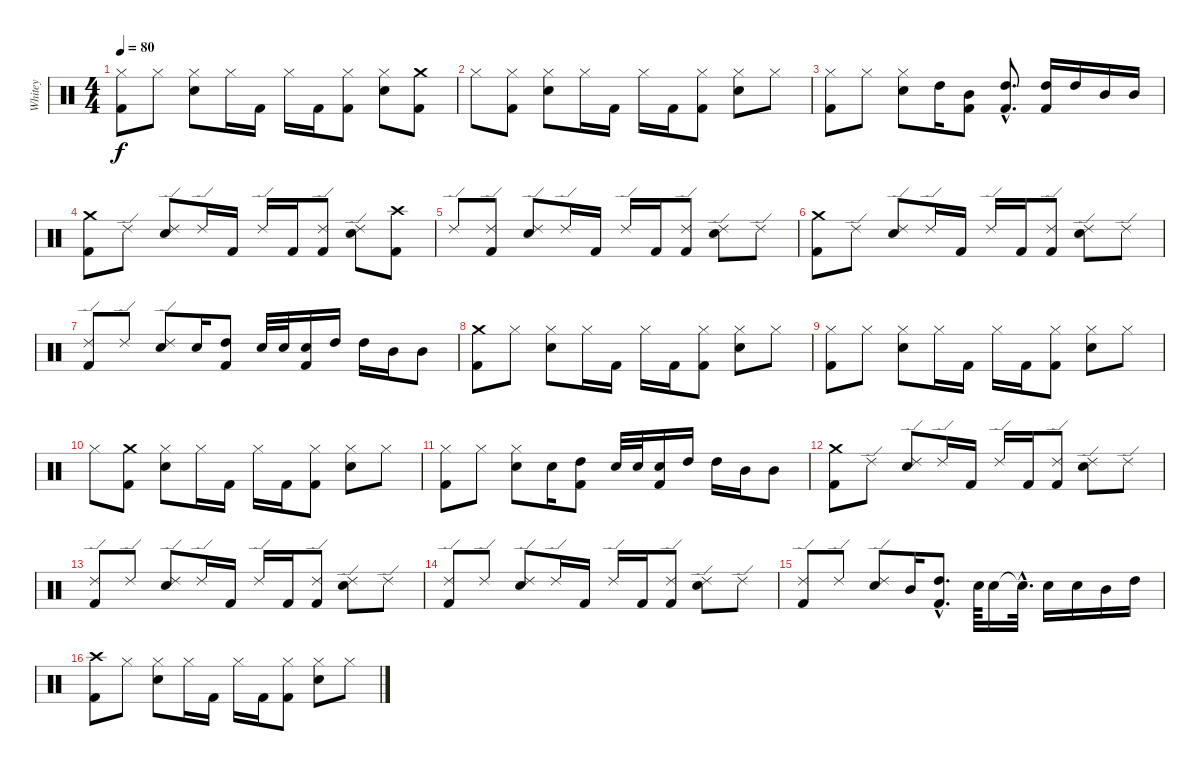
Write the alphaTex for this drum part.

\track ("Whitey" "Whitey") {instrument percussion}
\staff {score}
\articulation defaults
\ts (4 4)
\tempo 80
\clef neutral
\ks c
("Hi-Hat (closed)" "Kick (hit) 2").8{dy f} "Hi-Hat (closed)".8 ("Hi-Hat (closed)" "Snare (hit) 2").8 "Hi-Hat (closed)".16 "Kick (hit) 2".16 "Hi-Hat (closed)".16 "Kick (hit) 2".16 ("Hi-Hat (closed)" "Kick (hit) 2").8 ("Hi-Hat (closed)" "Snare (hit) 2").8 ("Crash medium (hit)" "Kick (hit) 2").8 |
"Hi-Hat (closed)".8 ("Hi-Hat (closed)" "Kick (hit) 2").8 ("Hi-Hat (closed)" "Snare (hit) 2").8 "Hi-Hat (closed)".16 "Kick (hit) 2".16 "Hi-Hat (closed)".16 "Kick (hit) 2".16 ("Hi-Hat (closed)" "Kick (hit) 2").8 ("Hi-Hat (closed)" "Snare (hit) 2").8 "Hi-Hat (closed)".8 |
("Hi-Hat (closed)" "Kick (hit) 2").8 "Hi-Hat (closed)".8 ("Hi-Hat (closed)" "Snare (hit) 2").8 "High Tom (hit)".16 ("Mid Tom (hit)" "Kick (hit) 2").8 ("High Tom (hit)"{hac} "Kick (hit) 2"{hac}).8{d} ("High Tom (hit)" "Kick (hit) 2").16 "High Tom (hit)".16 "Mid Tom (hit)".16 "Mid Tom (hit)".16 |
("Crash medium (hit)" "Kick (hit) 2").8 "Ride (edge) 2".8 ("Ride (edge) 2" "Snare (hit) 2").8 "Ride (edge) 2".16 "Kick (hit) 2".16 "Ride (edge) 2".16 "Kick (hit) 2".16 ("Ride (edge) 2" "Kick (hit) 2").8 ("Ride (edge) 2" "Snare (hit) 2").8 ("Crash high (hit)" "Kick (hit) 2").8 |
"Ride (edge) 2".8 ("Ride (edge) 2" "Kick (hit) 2").8 ("Ride (edge) 2" "Snare (hit) 2").8 "Ride (edge) 2".16 "Kick (hit) 2".16 "Ride (edge) 2".16 "Kick (hit) 2".16 ("Ride (edge) 2" "Kick (hit) 2").8 ("Ride (edge) 2" "Snare (hit) 2").8 "Ride (edge) 2".8 |
("Crash medium (hit)" "Kick (hit) 2").8 "Ride (edge) 2".8 ("Ride (edge) 2" "Snare (hit) 2").8 "Ride (edge) 2".16 "Kick (hit) 2".16 "Ride (edge) 2".16 "Kick (hit) 2".16 ("Ride (edge) 2" "Kick (hit) 2").8 ("Ride (edge) 2" "Snare (hit) 2").8 "Ride (edge) 2".8 |
("Ride (edge) 2" "Kick (hit) 2").8 "Ride (edge) 2".8 ("Ride (edge) 2" "Snare (hit) 2").8 "Snare (hit) 2".16 ("High Tom (hit)" "Kick (hit) 2").8 "Snare (hit) 2".32 "Snare (hit) 2".32 ("Snare (hit) 2" "Kick (hit) 2").16 "High Tom (hit)".16 "High Tom (hit)".16 "Mid Tom (hit)".16 "Mid Tom (hit)".8 |
("Crash medium (hit)" "Kick (hit) 2").8 "Hi-Hat (closed)".8 ("Hi-Hat (closed)" "Snare (hit) 2").8 "Hi-Hat (closed)".16 "Kick (hit) 2".16 "Hi-Hat (closed)".16 "Kick (hit) 2".16 ("Hi-Hat (closed)" "Kick (hit) 2").8 ("Hi-Hat (closed)" "Snare (hit) 2").8 "Hi-Hat (closed)".8 |
("Hi-Hat (closed)" "Kick (hit) 2").8 "Hi-Hat (closed)".8 ("Hi-Hat (closed)" "Snare (hit) 2").8 "Hi-Hat (closed)".16 "Kick (hit) 2".16 "Hi-Hat (closed)".16 "Kick (hit) 2".16 ("Hi-Hat (closed)" "Kick (hit) 2").8 ("Hi-Hat (closed)" "Snare (hit) 2").8 "Hi-Hat (closed)".8 |
"Hi-Hat (closed)".8 ("Crash medium (hit)" "Kick (hit) 2").8 ("Hi-Hat (closed)" "Snare (hit) 2").8 "Hi-Hat (closed)".16 "Kick (hit) 2".16 "Hi-Hat (closed)".16 "Kick (hit) 2".16 ("Hi-Hat (closed)" "Kick (hit) 2").8 ("Hi-Hat (closed)" "Snare (hit) 2").8 "Hi-Hat (closed)".8 |
("Hi-Hat (closed)" "Kick (hit) 2").8 "Hi-Hat (closed)".8 ("Hi-Hat (closed)" "Snare (hit) 2").8 "Snare (hit) 2".16 ("High Tom (hit)" "Kick (hit) 2").8 "Snare (hit) 2".32 "Snare (hit) 2".32 ("Snare (hit) 2" "Kick (hit) 2").16 "High Tom (hit)".16 "High Tom (hit)".16 "Mid Tom (hit)".16 "Mid Tom (hit)".8 |
("Crash medium (hit)" "Kick (hit) 2").8 "Ride (edge) 2".8 ("Ride (edge) 2" "Snare (hit) 2").8 "Ride (edge) 2".16 "Kick (hit) 2".16 "Ride (edge) 2".16 "Kick (hit) 2".16 ("Ride (edge) 2" "Kick (hit) 2").8 ("Ride (edge) 2" "Snare (hit) 2").8 "Ride (edge) 2".8 |
("Ride (edge) 2" "Kick (hit) 2").8 "Ride (edge) 2".8 ("Ride (edge) 2" "Snare (hit) 2").8 "Ride (edge) 2".16 "Kick (hit) 2".16 "Ride (edge) 2".16 "Kick (hit) 2".16 ("Ride (edge) 2" "Kick (hit) 2").8 ("Ride (edge) 2" "Snare (hit) 2").8 "Ride (edge) 2".8 |
("Ride (edge) 2" "Kick (hit) 2").8 "Ride (edge) 2".8 ("Ride (edge) 2" "Snare (hit) 2").8 "Ride (edge) 2".16 "Kick (hit) 2".16 "Ride (edge) 2".16 "Kick (hit) 2".16 ("Ride (edge) 2" "Kick (hit) 2").8 ("Ride (edge) 2" "Snare (hit) 2").8 "Ride (edge) 2".8 |
("Ride (edge) 2" "Kick (hit) 2").8 "Ride (edge) 2".8 ("Ride (edge) 2" "Snare (hit) 2").8 "Mid Tom (hit)".16 ("High Tom (hit)"{hac} "Kick (hit) 2"{hac}).8{d} "Snare (hit) 2".64 "Snare (hit) 2".16 "Snare (hit)"{hac t}.32{d} "Snare (hit) 2".16 "Snare (hit) 2".16 "Mid Tom (hit)".16 "High Tom (hit)".16 |
("Crash high (hit)" "Kick (hit) 2").8 "Hi-Hat (closed)".8 ("Hi-Hat (closed)" "Snare (hit) 2").8 "Hi-Hat (closed)".16 "Kick (hit) 2".16 "Hi-Hat (closed)".16 "Kick (hit) 2".16 ("Hi-Hat (closed)" "Kick (hit) 2").8 ("Hi-Hat (closed)" "Snare (hit) 2").8 "Hi-Hat (closed)".8
